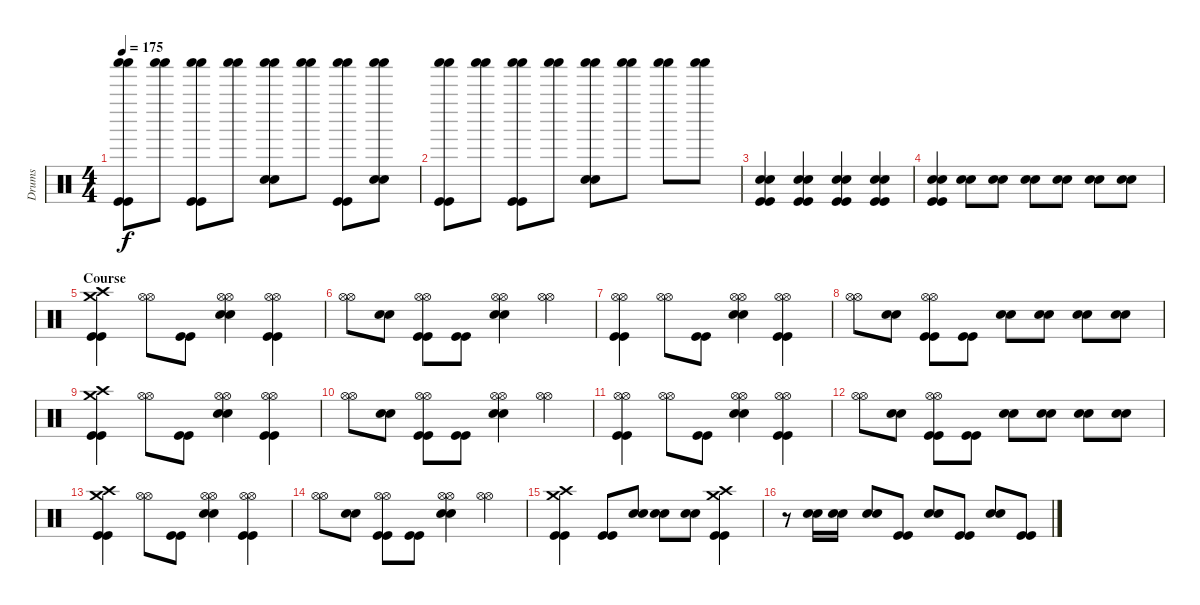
\track ("Drums" "Drums") {instrument percussion}
\staff {score}
\articulation defaults
\ts (4 4)
\tempo 175
\clef neutral
\ks c
("Shaker (hit)" "Shaker (hit)" "Kick (hit)" "Kick (hit)").8{dy f} ("Shaker (hit)" "Shaker (hit)").8 ("Shaker (hit)" "Shaker (hit)" "Kick (hit)" "Kick (hit)").8 ("Shaker (hit)" "Shaker (hit)").8 ("Shaker (hit)" "Shaker (hit)" "Electric Snare (hit)" "Electric Snare (hit)").8 ("Shaker (hit)" "Shaker (hit)").8 ("Shaker (hit)" "Shaker (hit)" "Kick (hit)" "Kick (hit)").8 ("Shaker (hit)" "Shaker (hit)" "Electric Snare (hit)" "Electric Snare (hit)").8 |
("Shaker (hit)" "Shaker (hit)" "Kick (hit)" "Kick (hit)").8 ("Shaker (hit)" "Shaker (hit)").8 ("Shaker (hit)" "Shaker (hit)" "Kick (hit)" "Kick (hit)").8 ("Shaker (hit)" "Shaker (hit)").8 ("Shaker (hit)" "Shaker (hit)" "Electric Snare (hit)" "Electric Snare (hit)").8 ("Shaker (hit)" "Shaker (hit)").8 ("Shaker (hit)" "Shaker (hit)").8 ("Shaker (hit)" "Shaker (hit)").8 |
("Electric Snare (hit)" "Electric Snare (hit)" "Kick (hit)" "Kick (hit)").4 ("Electric Snare (hit)" "Electric Snare (hit)" "Kick (hit)" "Kick (hit)").4 ("Electric Snare (hit)" "Electric Snare (hit)" "Kick (hit)" "Kick (hit)").4 ("Electric Snare (hit)" "Electric Snare (hit)" "Kick (hit)" "Kick (hit)").4 |
("Electric Snare (hit)" "Electric Snare (hit)" "Kick (hit)" "Kick (hit)").4 ("Electric Snare (hit)" "Electric Snare (hit)").8 ("Electric Snare (hit)" "Electric Snare (hit)").8 ("Electric Snare (hit)" "Electric Snare (hit)").8 ("Electric Snare (hit)" "Electric Snare (hit)").8 ("Electric Snare (hit)" "Electric Snare (hit)").8 ("Electric Snare (hit)" "Electric Snare (hit)").8 |
\section ("" "Course")
("Crash high (hit)" "Crash medium (hit)" "Kick (hit)" "Kick (hit)").4 ("Hi-Hat (open)" "Hi-Hat (open)").8 ("Kick (hit)" "Kick (hit)").8 ("Hi-Hat (open)" "Hi-Hat (open)" "Electric Snare (hit)" "Electric Snare (hit)").4 ("Hi-Hat (open)" "Hi-Hat (open)" "Kick (hit)" "Kick (hit)").4 |
("Hi-Hat (open)" "Hi-Hat (open)").8 ("Electric Snare (hit)" "Electric Snare (hit)").8 ("Hi-Hat (open)" "Hi-Hat (open)" "Kick (hit)" "Kick (hit)").8 ("Kick (hit)" "Kick (hit)").8 ("Hi-Hat (open)" "Hi-Hat (open)" "Electric Snare (hit)" "Electric Snare (hit)").4 ("Hi-Hat (open)" "Hi-Hat (open)").4 |
("Hi-Hat (open)" "Hi-Hat (open)" "Kick (hit)" "Kick (hit)").4 ("Hi-Hat (open)" "Hi-Hat (open)").8 ("Kick (hit)" "Kick (hit)").8 ("Hi-Hat (open)" "Hi-Hat (open)" "Electric Snare (hit)" "Electric Snare (hit)").4 ("Hi-Hat (open)" "Hi-Hat (open)" "Kick (hit)" "Kick (hit)").4 |
("Hi-Hat (open)" "Hi-Hat (open)").8 ("Electric Snare (hit)" "Electric Snare (hit)").8 ("Hi-Hat (open)" "Hi-Hat (open)" "Kick (hit)" "Kick (hit)").8 ("Kick (hit)" "Kick (hit)").8 ("Electric Snare (hit)" "Electric Snare (hit)").8 ("Electric Snare (hit)" "Electric Snare (hit)").8 ("Electric Snare (hit)" "Electric Snare (hit)").8 ("Electric Snare (hit)" "Electric Snare (hit)").8 |
("Crash high (hit)" "Crash medium (hit)" "Kick (hit)" "Kick (hit)").4 ("Hi-Hat (open)" "Hi-Hat (open)").8 ("Kick (hit)" "Kick (hit)").8 ("Hi-Hat (open)" "Hi-Hat (open)" "Electric Snare (hit)" "Electric Snare (hit)").4 ("Hi-Hat (open)" "Hi-Hat (open)" "Kick (hit)" "Kick (hit)").4 |
("Hi-Hat (open)" "Hi-Hat (open)").8 ("Electric Snare (hit)" "Electric Snare (hit)").8 ("Hi-Hat (open)" "Hi-Hat (open)" "Kick (hit)" "Kick (hit)").8 ("Kick (hit)" "Kick (hit)").8 ("Hi-Hat (open)" "Hi-Hat (open)" "Electric Snare (hit)" "Electric Snare (hit)").4 ("Hi-Hat (open)" "Hi-Hat (open)").4 |
("Hi-Hat (open)" "Hi-Hat (open)" "Kick (hit)" "Kick (hit)").4 ("Hi-Hat (open)" "Hi-Hat (open)").8 ("Kick (hit)" "Kick (hit)").8 ("Hi-Hat (open)" "Hi-Hat (open)" "Electric Snare (hit)" "Electric Snare (hit)").4 ("Hi-Hat (open)" "Hi-Hat (open)" "Kick (hit)" "Kick (hit)").4 |
("Hi-Hat (open)" "Hi-Hat (open)").8 ("Electric Snare (hit)" "Electric Snare (hit)").8 ("Hi-Hat (open)" "Hi-Hat (open)" "Kick (hit)" "Kick (hit)").8 ("Kick (hit)" "Kick (hit)").8 ("Electric Snare (hit)" "Electric Snare (hit)").8 ("Electric Snare (hit)" "Electric Snare (hit)").8 ("Electric Snare (hit)" "Electric Snare (hit)").8 ("Electric Snare (hit)" "Electric Snare (hit)").8 |
("Crash high (hit)" "Crash medium (hit)" "Kick (hit)" "Kick (hit)").4 ("Hi-Hat (open)" "Hi-Hat (open)").8 ("Kick (hit)" "Kick (hit)").8 ("Hi-Hat (open)" "Hi-Hat (open)" "Electric Snare (hit)" "Electric Snare (hit)").4 ("Hi-Hat (open)" "Hi-Hat (open)" "Kick (hit)" "Kick (hit)").4 |
("Hi-Hat (open)" "Hi-Hat (open)").8 ("Electric Snare (hit)" "Electric Snare (hit)").8 ("Hi-Hat (open)" "Hi-Hat (open)" "Kick (hit)" "Kick (hit)").8 ("Kick (hit)" "Kick (hit)").8 ("Hi-Hat (open)" "Hi-Hat (open)" "Electric Snare (hit)" "Electric Snare (hit)").4 ("Hi-Hat (open)" "Hi-Hat (open)").4 |
("Crash high (hit)" "Crash medium (hit)" "Kick (hit)" "Kick (hit)").4 ("Kick (hit)" "Kick (hit)").8 ("Electric Snare (hit)" "Electric Snare (hit)").8 ("Electric Snare (hit)" "Electric Snare (hit)").8 ("Electric Snare (hit)" "Electric Snare (hit)").8 ("Crash high (hit)" "Crash medium (hit)" "Kick (hit)" "Kick (hit)").4 |
r.8 ("Electric Snare (hit)" "Electric Snare (hit)").16 ("Electric Snare (hit)" "Electric Snare (hit)").16 ("Electric Snare (hit)" "Electric Snare (hit)").8 ("Kick (hit)" "Kick (hit)").8 ("Electric Snare (hit)" "Electric Snare (hit)").8 ("Kick (hit)" "Kick (hit)").8 ("Electric Snare (hit)" "Electric Snare (hit)").8 ("Kick (hit)" "Kick (hit)").8
